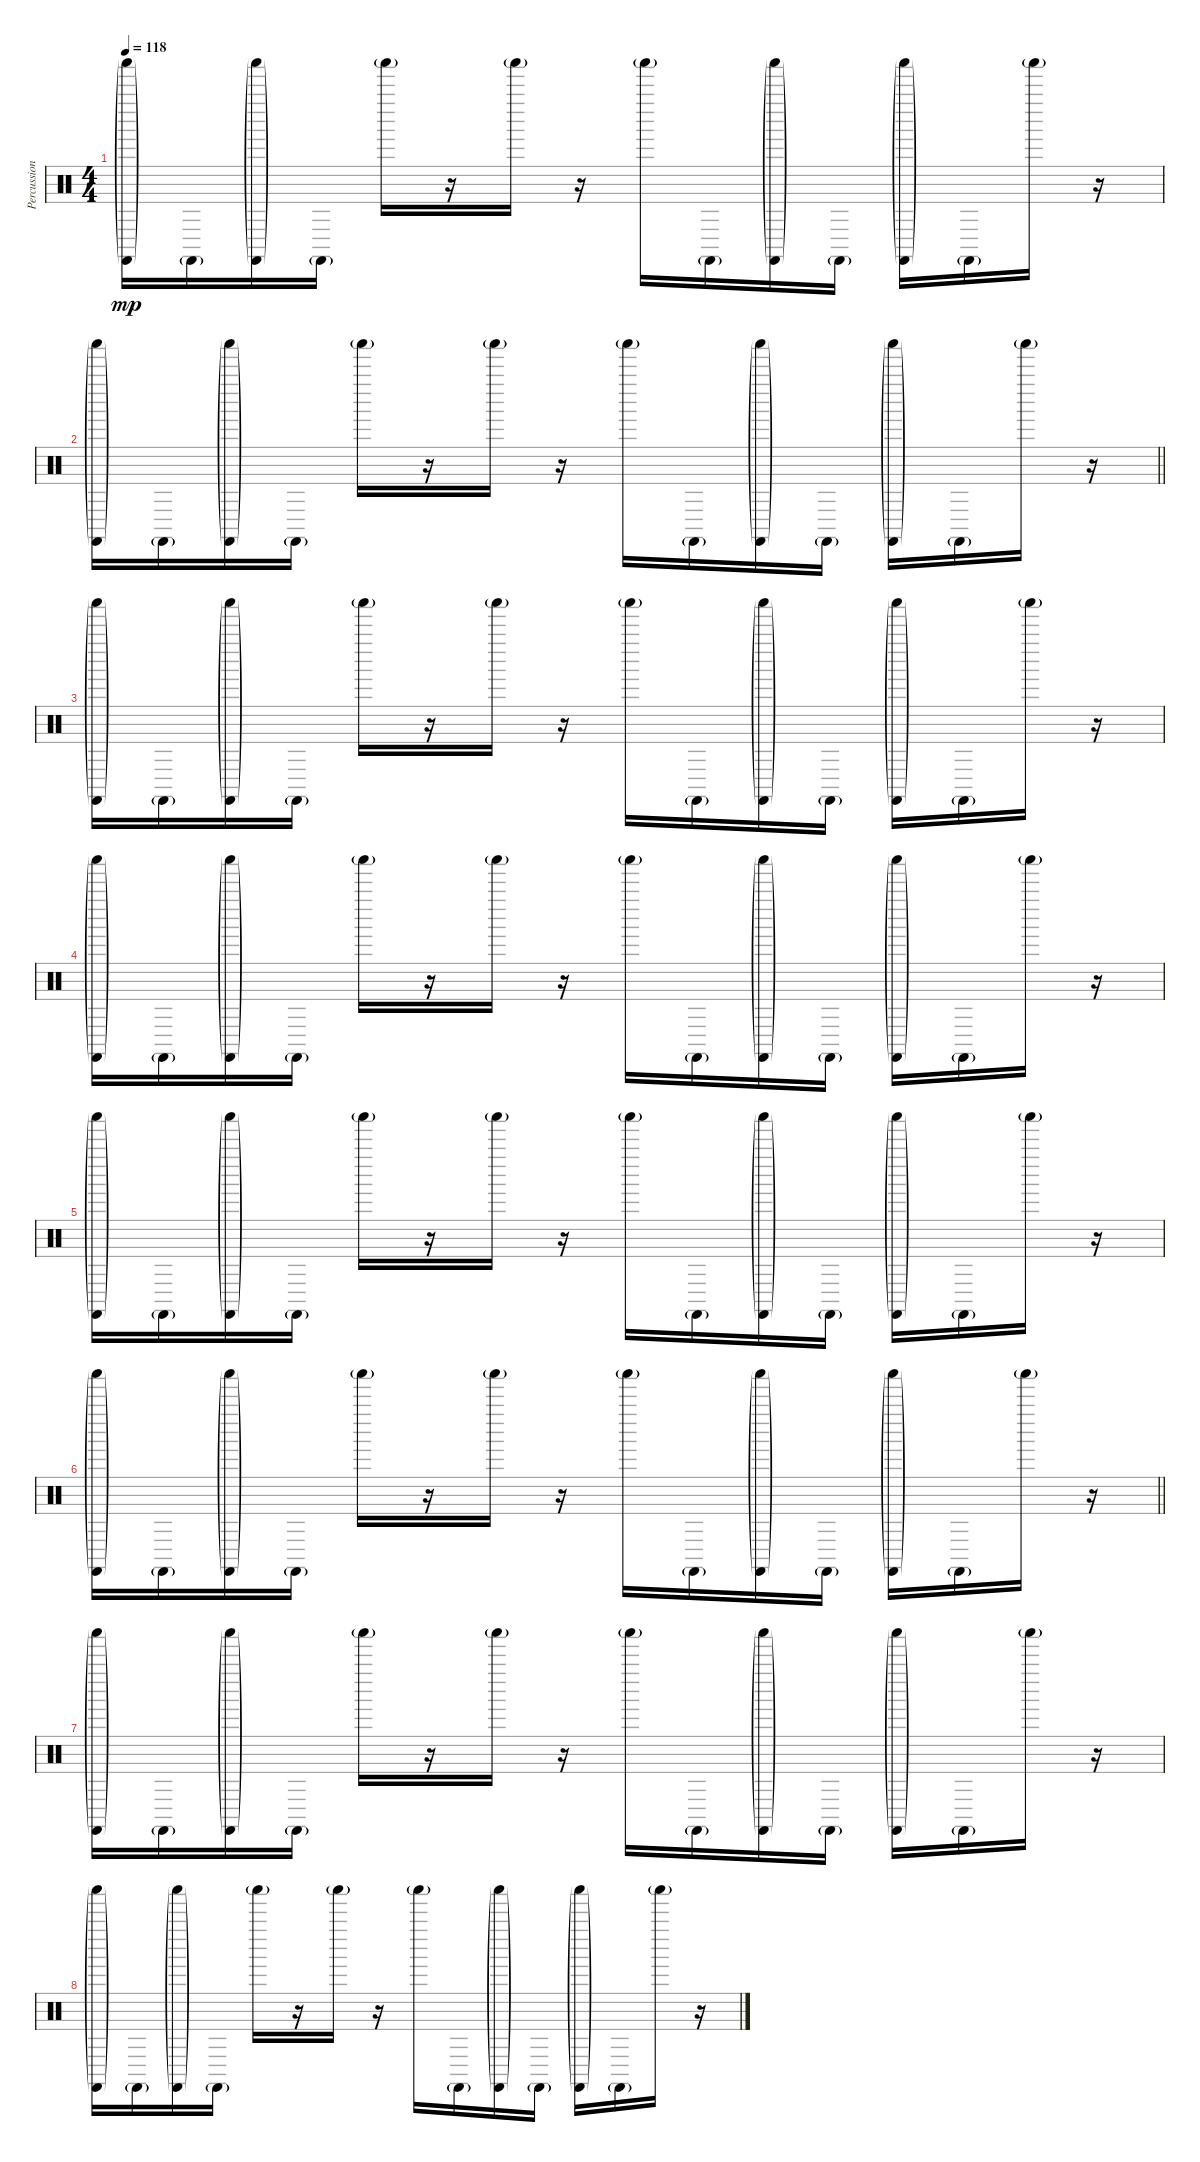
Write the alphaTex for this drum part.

\track ("Percussion" "Percussion") {instrument percussion}
\staff {score}
\articulation defaults
\ts (4 4)
\tempo 118
\clef neutral
\ks c
("Castanets (hit)"{g} "Shaker (hit)"{g}).16{dy mp} "Castanets (hit)"{g}.16 ("Castanets (hit)"{g} "Shaker (hit)"{g}).16 "Castanets (hit)"{g}.16 "Shaker (hit)"{g}.16 r.16 "Shaker (hit)"{g}.16 r.16 "Shaker (hit)"{g}.16 "Castanets (hit)"{g}.16 ("Castanets (hit)"{g} "Shaker (hit)"{g}).16 "Castanets (hit)"{g}.16 ("Castanets (hit)"{g} "Shaker (hit)"{g}).16 "Castanets (hit)"{g}.16 "Shaker (hit)"{g}.16 r.16 |
\barLineRight lightlight
("Castanets (hit)"{g} "Shaker (hit)"{g}).16 "Castanets (hit)"{g}.16 ("Castanets (hit)"{g} "Shaker (hit)"{g}).16 "Castanets (hit)"{g}.16 "Shaker (hit)"{g}.16 r.16 "Shaker (hit)"{g}.16 r.16 "Shaker (hit)"{g}.16 "Castanets (hit)"{g}.16 ("Castanets (hit)"{g} "Shaker (hit)"{g}).16 "Castanets (hit)"{g}.16 ("Castanets (hit)"{g} "Shaker (hit)"{g}).16 "Castanets (hit)"{g}.16 "Shaker (hit)"{g}.16 r.16 |
\section ("" "")
("Castanets (hit)"{g} "Shaker (hit)"{g}).16 "Castanets (hit)"{g}.16 ("Castanets (hit)"{g} "Shaker (hit)"{g}).16 "Castanets (hit)"{g}.16 "Shaker (hit)"{g}.16 r.16 "Shaker (hit)"{g}.16 r.16 "Shaker (hit)"{g}.16 "Castanets (hit)"{g}.16 ("Castanets (hit)"{g} "Shaker (hit)"{g}).16 "Castanets (hit)"{g}.16 ("Castanets (hit)"{g} "Shaker (hit)"{g}).16 "Castanets (hit)"{g}.16 "Shaker (hit)"{g}.16 r.16 |
("Castanets (hit)"{g} "Shaker (hit)"{g}).16 "Castanets (hit)"{g}.16 ("Castanets (hit)"{g} "Shaker (hit)"{g}).16 "Castanets (hit)"{g}.16 "Shaker (hit)"{g}.16 r.16 "Shaker (hit)"{g}.16 r.16 "Shaker (hit)"{g}.16 "Castanets (hit)"{g}.16 ("Castanets (hit)"{g} "Shaker (hit)"{g}).16 "Castanets (hit)"{g}.16 ("Castanets (hit)"{g} "Shaker (hit)"{g}).16 "Castanets (hit)"{g}.16 "Shaker (hit)"{g}.16 r.16 |
("Castanets (hit)"{g} "Shaker (hit)"{g}).16 "Castanets (hit)"{g}.16 ("Castanets (hit)"{g} "Shaker (hit)"{g}).16 "Castanets (hit)"{g}.16 "Shaker (hit)"{g}.16 r.16 "Shaker (hit)"{g}.16 r.16 "Shaker (hit)"{g}.16 "Castanets (hit)"{g}.16 ("Castanets (hit)"{g} "Shaker (hit)"{g}).16 "Castanets (hit)"{g}.16 ("Castanets (hit)"{g} "Shaker (hit)"{g}).16 "Castanets (hit)"{g}.16 "Shaker (hit)"{g}.16 r.16 |
\barLineRight lightlight
("Castanets (hit)"{g} "Shaker (hit)"{g}).16 "Castanets (hit)"{g}.16 ("Castanets (hit)"{g} "Shaker (hit)"{g}).16 "Castanets (hit)"{g}.16 "Shaker (hit)"{g}.16 r.16 "Shaker (hit)"{g}.16 r.16 "Shaker (hit)"{g}.16 "Castanets (hit)"{g}.16 ("Castanets (hit)"{g} "Shaker (hit)"{g}).16 "Castanets (hit)"{g}.16 ("Castanets (hit)"{g} "Shaker (hit)"{g}).16 "Castanets (hit)"{g}.16 "Shaker (hit)"{g}.16 r.16 |
\section ("" "")
("Castanets (hit)"{g} "Shaker (hit)"{g}).16 "Castanets (hit)"{g}.16 ("Castanets (hit)"{g} "Shaker (hit)"{g}).16 "Castanets (hit)"{g}.16 "Shaker (hit)"{g}.16 r.16 "Shaker (hit)"{g}.16 r.16 "Shaker (hit)"{g}.16 "Castanets (hit)"{g}.16 ("Castanets (hit)"{g} "Shaker (hit)"{g}).16 "Castanets (hit)"{g}.16 ("Castanets (hit)"{g} "Shaker (hit)"{g}).16 "Castanets (hit)"{g}.16 "Shaker (hit)"{g}.16 r.16 |
("Castanets (hit)"{g} "Shaker (hit)"{g}).16 "Castanets (hit)"{g}.16 ("Castanets (hit)"{g} "Shaker (hit)"{g}).16 "Castanets (hit)"{g}.16 "Shaker (hit)"{g}.16 r.16 "Shaker (hit)"{g}.16 r.16 "Shaker (hit)"{g}.16 "Castanets (hit)"{g}.16 ("Castanets (hit)"{g} "Shaker (hit)"{g}).16 "Castanets (hit)"{g}.16 ("Castanets (hit)"{g} "Shaker (hit)"{g}).16 "Castanets (hit)"{g}.16 "Shaker (hit)"{g}.16 r.16
